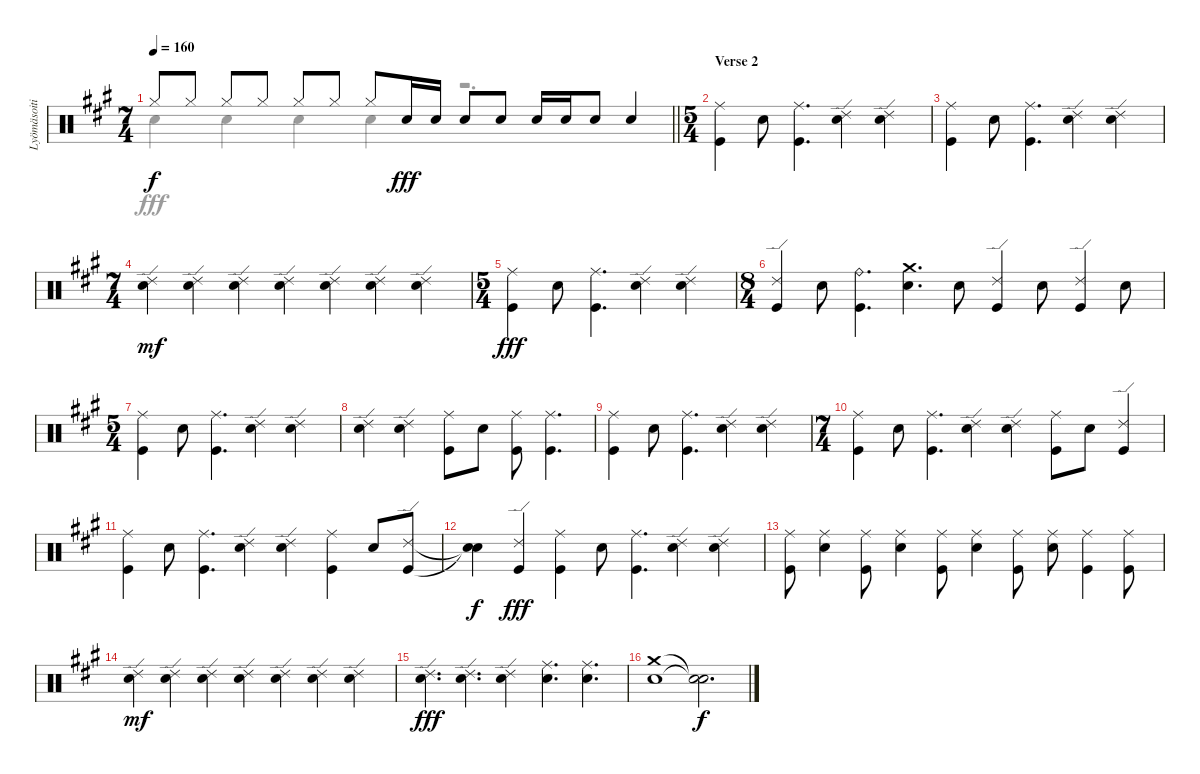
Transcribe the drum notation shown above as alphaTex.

\track ("Lyömäsoitin" "Lyömäsoiti") {instrument percussion}
\staff {score}
\articulation defaults
\voice
\ts (7 4)
\tempo 160
\clef neutral
\barLineRight lightlight
\ks a "Hi-Hat (closed)".8{dy f} "Hi-Hat (closed)".8 "Hi-Hat (closed)".8 "Hi-Hat (closed)".8 "Hi-Hat (closed)".8 "Hi-Hat (closed)".8 "Hi-Hat (closed)".8 "Snare (hit) 2".16{dy fff} "Snare (hit) 2".16 "Snare (hit) 2".8 "Snare (hit) 2".8 "Snare (hit) 2".16 "Snare (hit) 2".16 "Snare (hit) 2".8 "Snare (hit) 2".4
|
\ts (5 4)
\section ("" "Verse 2")
("Ride (middle)" "Kick (hit)").4{volume 11} "Snare (hit) 2".8 ("Ride (middle)" "Kick (hit)").4{d} ("Ride (edge) 2" "Snare (hit) 2").4 ("Ride (edge) 2" "Snare (hit) 2").4 |
("Ride (middle)" "Kick (hit)").4 "Snare (hit) 2".8 ("Ride (middle)" "Kick (hit)").4{d} ("Ride (edge) 2" "Snare (hit) 2").4 ("Ride (edge) 2" "Snare (hit) 2").4 |
\ts (7 4)
("Ride (edge) 2" "Snare (hit) 2").4{dy mf} ("Ride (edge) 2" "Snare (hit) 2").4 ("Ride (edge) 2" "Snare (hit) 2").4 ("Ride (edge) 2" "Snare (hit) 2").4 ("Ride (edge) 2" "Snare (hit) 2").4 ("Ride (edge) 2" "Snare (hit) 2").4 ("Ride (edge) 2" "Snare (hit) 2").4 |
\ts (5 4)
("Ride (middle)" "Kick (hit)").4{dy fff} "Snare (hit) 2".8 ("Ride (middle)" "Kick (hit)").4{d} ("Ride (edge) 2" "Snare (hit) 2").4 ("Ride (edge) 2" "Snare (hit) 2").4 |
\ts (8 4)
("Ride (edge) 2" "Kick (hit)").4 "Snare (hit) 2".8 ("Ride (bell)" "Kick (hit)").4{d} ("Crash medium (hit)" "Snare (hit) 2").4{d} "Snare (hit) 2".8 ("Ride (edge) 2" "Kick (hit)").4 "Snare (hit) 2".8 ("Ride (edge) 2" "Kick (hit)").4 "Snare (hit) 2".8 |
\ts (5 4)
("Ride (middle)" "Kick (hit)").4 "Snare (hit) 2".8 ("Ride (middle)" "Kick (hit)").4{d} ("Ride (edge) 2" "Snare (hit) 2").4 ("Ride (edge) 2" "Snare (hit) 2").4 |
("Ride (edge) 2" "Snare (hit) 2").4 ("Ride (edge) 2" "Snare (hit) 2").4 ("Ride (middle)" "Kick (hit)").8 "Snare (hit) 2".8 ("Ride (middle)" "Kick (hit)").8 ("Ride (middle)" "Kick (hit)").4{d} |
("Ride (middle)" "Kick (hit)").4 "Snare (hit) 2".8 ("Ride (middle)" "Kick (hit)").4{d} ("Ride (edge) 2" "Snare (hit) 2").4 ("Ride (edge) 2" "Snare (hit) 2").4 |
\ts (7 4)
("Ride (middle)" "Kick (hit)").4 "Snare (hit) 2".8 ("Ride (middle)" "Kick (hit)").4{d} ("Ride (edge) 2" "Snare (hit) 2").4 ("Ride (edge) 2" "Snare (hit) 2").4 ("Ride (middle)" "Kick (hit)").8 "Snare (hit) 2".8 ("Ride (edge) 2" "Kick (hit)").4 |
("Ride (middle)" "Kick (hit)").4 "Snare (hit) 2".8 ("Ride (middle)" "Kick (hit)").4{d} ("Ride (edge) 2" "Snare (hit) 2").4 ("Ride (edge) 2" "Snare (hit) 2").4 ("Ride (middle)" "Kick (hit)").4 "Snare (hit) 2".8 ("Ride (edge) 2" "Kick (hit)").8 |
("Snare (hit)"{t} "Snare (hit)"{t}).4{dy f} ("Ride (edge) 2" "Kick (hit)").4{dy fff} ("Ride (middle)" "Kick (hit)").4 "Snare (hit) 2".8 ("Ride (middle)" "Kick (hit)").4{d} ("Ride (edge) 2" "Snare (hit) 2").4 ("Ride (edge) 2" "Snare (hit) 2").4 |
("Ride (middle)" "Kick (hit)").8 ("Ride (middle)" "Snare (hit) 2").4 ("Ride (middle)" "Kick (hit)").8 ("Ride (middle)" "Snare (hit) 2").4 ("Ride (middle)" "Kick (hit)").8 ("Ride (middle)" "Snare (hit) 2").4 ("Ride (middle)" "Kick (hit)").8 ("Ride (middle)" "Snare (hit) 2").8 ("Ride (middle)" "Kick (hit)").4 ("Ride (middle)" "Kick (hit)").8 |
("Ride (edge) 2" "Snare (hit) 2").4{dy mf} ("Ride (edge) 2" "Snare (hit) 2").4 ("Ride (edge) 2" "Snare (hit) 2").4 ("Ride (edge) 2" "Snare (hit) 2").4 ("Ride (edge) 2" "Snare (hit) 2").4 ("Ride (edge) 2" "Snare (hit) 2").4 ("Ride (edge) 2" "Snare (hit) 2").4 |
("Ride (edge) 2" "Snare (hit) 2").4{d dy fff} ("Ride (edge) 2" "Snare (hit) 2").4{d} ("Ride (edge) 2" "Snare (hit) 2").4 ("Ride (middle)" "Snare (hit) 2").4{d} ("Ride (middle)" "Snare (hit) 2").4{d} |
("Crash medium (hit)" "Snare (hit) 2").1 ("Snare (hit)"{t} "Snare (hit)"{t}).2{d dy f}
\voice
\clef neutral
\ottava regular
\simile none
\barLineRight lightlight
\ks a "Snare (hit) 2".4{dy fff} "Snare (hit) 2".4 "Snare (hit) 2".4 "Snare (hit) 2".4
r.2{d} |
|
|
|
|
|
|
|
|
|
|
|
|
|
|
